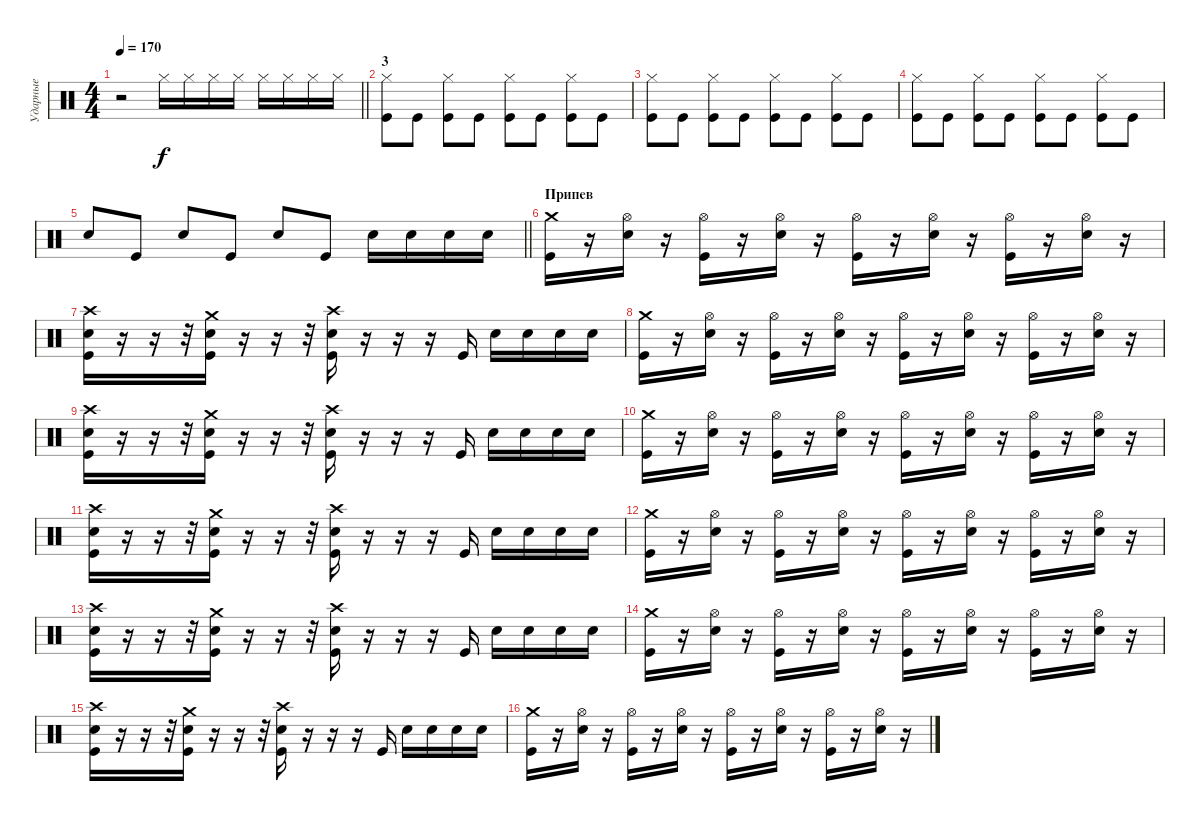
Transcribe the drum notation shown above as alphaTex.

\track ("Ударные" "Ударные") {instrument percussion}
\staff {score}
\articulation defaults
\ts (4 4)
\tempo 170
\clef neutral
\barLineRight lightlight
\ks c
r.2{dy f} "Hi-Hat (closed)".16 "Hi-Hat (closed)".16 "Hi-Hat (closed)".16 "Hi-Hat (closed)".16 "Hi-Hat (closed)".16 "Hi-Hat (closed)".16 "Hi-Hat (closed)".16 "Hi-Hat (closed)".16 |
\section ("" "3")
("Hi-Hat (closed)" "Kick (hit)").8 "Kick (hit)".8 ("Hi-Hat (closed)" "Kick (hit)").8 "Kick (hit)".8 ("Hi-Hat (closed)" "Kick (hit)").8 "Kick (hit)".8 ("Hi-Hat (closed)" "Kick (hit)").8 "Kick (hit)".8 |
("Hi-Hat (closed)" "Kick (hit)").8 "Kick (hit)".8 ("Hi-Hat (closed)" "Kick (hit)").8 "Kick (hit)".8 ("Hi-Hat (closed)" "Kick (hit)").8 "Kick (hit)".8 ("Hi-Hat (closed)" "Kick (hit)").8 "Kick (hit)".8 |
("Hi-Hat (closed)" "Kick (hit)").8 "Kick (hit)".8 ("Hi-Hat (closed)" "Kick (hit)").8 "Kick (hit)".8 ("Hi-Hat (closed)" "Kick (hit)").8 "Kick (hit)".8 ("Hi-Hat (closed)" "Kick (hit)").8 "Kick (hit)".8 |
\barLineRight lightlight "Electric Snare (hit)".8 "Kick (hit)".8 "Electric Snare (hit)".8 "Kick (hit)".8 "Electric Snare (hit)".8 "Kick (hit)".8 "Electric Snare (hit)".16 "Electric Snare (hit)".16 "Electric Snare (hit)".16 "Electric Snare (hit)".16
|
\section ("" "Припев")
("Crash medium (hit)" "Kick (hit)").16 r.16 ("Hi-Hat (open)" "Electric Snare (hit)").16 r.16 ("Hi-Hat (open)" "Kick (hit)").16 r.16 ("Hi-Hat (open)" "Electric Snare (hit)").16 r.16 ("Hi-Hat (open)" "Kick (hit)").16 r.16 ("Hi-Hat (open)" "Electric Snare (hit)").16 r.16 ("Hi-Hat (open)" "Kick (hit)").16 r.16 ("Hi-Hat (open)" "Electric Snare (hit)").16 r.16 |
("Crash high (hit)" "Electric Snare (hit)" "Kick (hit)").16 r.16 r.16 r.32 ("Crash medium (hit)" "Electric Snare (hit)" "Kick (hit)").16 r.16 r.16 r.32 ("Crash high (hit)" "Electric Snare (hit)" "Kick (hit)").16 r.16 r.16 r.16 "Kick (hit)".16 "Electric Snare (hit)".16 "Electric Snare (hit)".16 "Electric Snare (hit)".16 "Electric Snare (hit)".16 |
("Crash medium (hit)" "Kick (hit)").16 r.16 ("Hi-Hat (open)" "Electric Snare (hit)").16 r.16 ("Hi-Hat (open)" "Kick (hit)").16 r.16 ("Hi-Hat (open)" "Electric Snare (hit)").16 r.16 ("Hi-Hat (open)" "Kick (hit)").16 r.16 ("Hi-Hat (open)" "Electric Snare (hit)").16 r.16 ("Hi-Hat (open)" "Kick (hit)").16 r.16 ("Hi-Hat (open)" "Electric Snare (hit)").16 r.16 |
("Crash high (hit)" "Electric Snare (hit)" "Kick (hit)").16 r.16 r.16 r.32 ("Crash medium (hit)" "Electric Snare (hit)" "Kick (hit)").16 r.16 r.16 r.32 ("Crash high (hit)" "Electric Snare (hit)" "Kick (hit)").16 r.16 r.16 r.16 "Kick (hit)".16 "Electric Snare (hit)".16 "Electric Snare (hit)".16 "Electric Snare (hit)".16 "Electric Snare (hit)".16 |
("Crash medium (hit)" "Kick (hit)").16 r.16 ("Hi-Hat (open)" "Electric Snare (hit)").16 r.16 ("Hi-Hat (open)" "Kick (hit)").16 r.16 ("Hi-Hat (open)" "Electric Snare (hit)").16 r.16 ("Hi-Hat (open)" "Kick (hit)").16 r.16 ("Hi-Hat (open)" "Electric Snare (hit)").16 r.16 ("Hi-Hat (open)" "Kick (hit)").16 r.16 ("Hi-Hat (open)" "Electric Snare (hit)").16 r.16 |
("Crash high (hit)" "Electric Snare (hit)" "Kick (hit)").16 r.16 r.16 r.32 ("Crash medium (hit)" "Electric Snare (hit)" "Kick (hit)").16 r.16 r.16 r.32 ("Crash high (hit)" "Electric Snare (hit)" "Kick (hit)").16 r.16 r.16 r.16 "Kick (hit)".16 "Electric Snare (hit)".16 "Electric Snare (hit)".16 "Electric Snare (hit)".16 "Electric Snare (hit)".16 |
("Crash medium (hit)" "Kick (hit)").16 r.16 ("Hi-Hat (open)" "Electric Snare (hit)").16 r.16 ("Hi-Hat (open)" "Kick (hit)").16 r.16 ("Hi-Hat (open)" "Electric Snare (hit)").16 r.16 ("Hi-Hat (open)" "Kick (hit)").16 r.16 ("Hi-Hat (open)" "Electric Snare (hit)").16 r.16 ("Hi-Hat (open)" "Kick (hit)").16 r.16 ("Hi-Hat (open)" "Electric Snare (hit)").16 r.16 |
("Crash high (hit)" "Electric Snare (hit)" "Kick (hit)").16 r.16 r.16 r.32 ("Crash medium (hit)" "Electric Snare (hit)" "Kick (hit)").16 r.16 r.16 r.32 ("Crash high (hit)" "Electric Snare (hit)" "Kick (hit)").16 r.16 r.16 r.16 "Kick (hit)".16 "Electric Snare (hit)".16 "Electric Snare (hit)".16 "Electric Snare (hit)".16 "Electric Snare (hit)".16 |
("Crash medium (hit)" "Kick (hit)").16 r.16 ("Hi-Hat (open)" "Electric Snare (hit)").16 r.16 ("Hi-Hat (open)" "Kick (hit)").16 r.16 ("Hi-Hat (open)" "Electric Snare (hit)").16 r.16 ("Hi-Hat (open)" "Kick (hit)").16 r.16 ("Hi-Hat (open)" "Electric Snare (hit)").16 r.16 ("Hi-Hat (open)" "Kick (hit)").16 r.16 ("Hi-Hat (open)" "Electric Snare (hit)").16 r.16 |
("Crash high (hit)" "Electric Snare (hit)" "Kick (hit)").16 r.16 r.16 r.32 ("Crash medium (hit)" "Electric Snare (hit)" "Kick (hit)").16 r.16 r.16 r.32 ("Crash high (hit)" "Electric Snare (hit)" "Kick (hit)").16 r.16 r.16 r.16 "Kick (hit)".16 "Electric Snare (hit)".16 "Electric Snare (hit)".16 "Electric Snare (hit)".16 "Electric Snare (hit)".16 |
("Crash medium (hit)" "Kick (hit)").16 r.16 ("Hi-Hat (open)" "Electric Snare (hit)").16 r.16 ("Hi-Hat (open)" "Kick (hit)").16 r.16 ("Hi-Hat (open)" "Electric Snare (hit)").16 r.16 ("Hi-Hat (open)" "Kick (hit)").16 r.16 ("Hi-Hat (open)" "Electric Snare (hit)").16 r.16 ("Hi-Hat (open)" "Kick (hit)").16 r.16 ("Hi-Hat (open)" "Electric Snare (hit)").16 r.16
